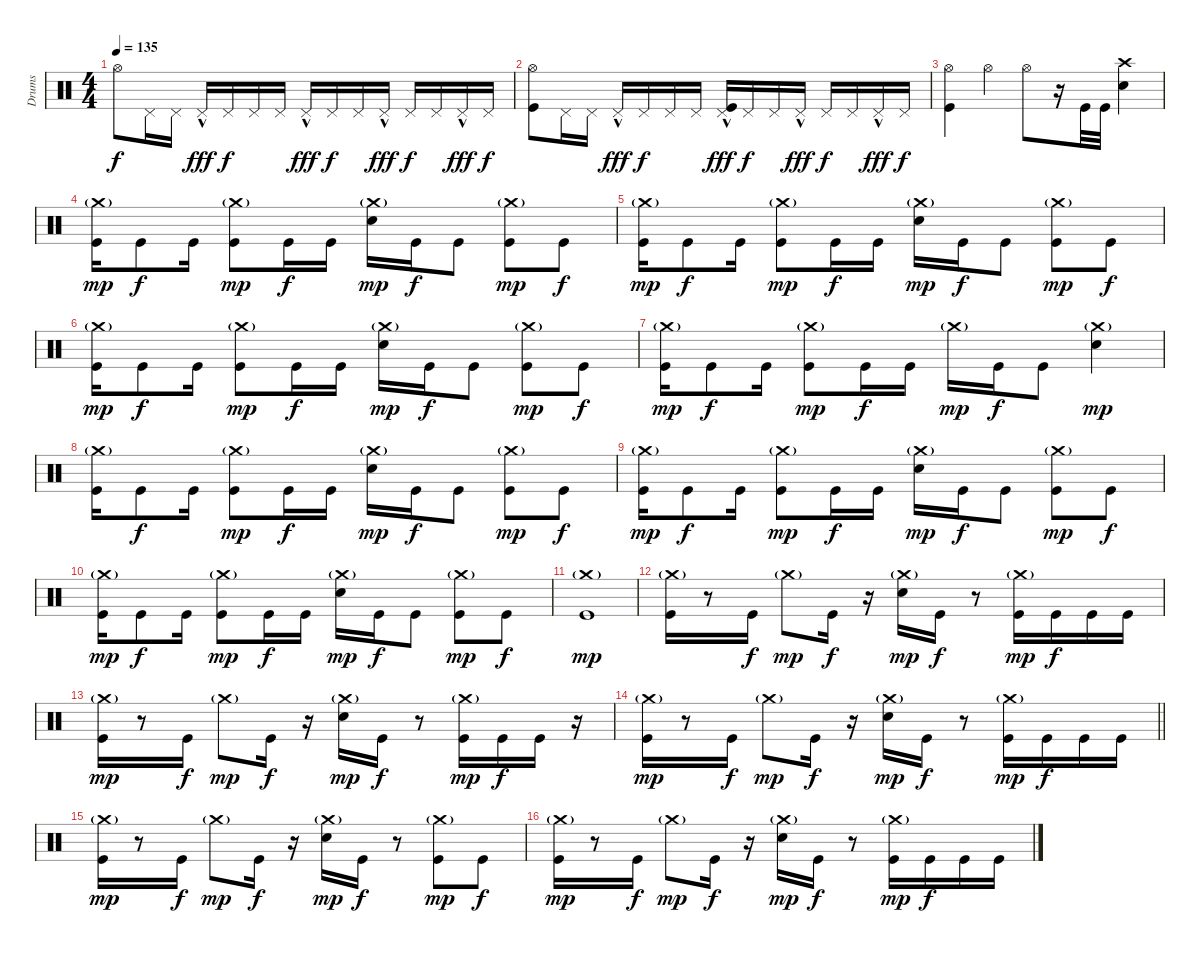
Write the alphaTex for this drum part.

\track ("Drums" "Drums") {instrument percussion}
\staff {score}
\articulation defaults
\ts (4 4)
\tempo 135
\clef neutral
\ks c "Hi-Hat (open)".8{dy f} "Pedal Hi-Hat (hit)".16 "Pedal Hi-Hat (hit)".16 "Pedal Hi-Hat (hit)"{hac}.16{dy fff} "Pedal Hi-Hat (hit)".16{dy f} "Pedal Hi-Hat (hit)".16 "Pedal Hi-Hat (hit)".16 "Pedal Hi-Hat (hit)"{hac}.16{dy fff} "Pedal Hi-Hat (hit)".16{dy f} "Pedal Hi-Hat (hit)".16 "Pedal Hi-Hat (hit)"{hac}.16{dy fff} "Pedal Hi-Hat (hit)".16{dy f} "Pedal Hi-Hat (hit)".16 "Pedal Hi-Hat (hit)"{hac}.16{dy fff} "Pedal Hi-Hat (hit)".16{dy f}
|
("Hi-Hat (open)" "Kick (hit)").8 "Pedal Hi-Hat (hit)".16 "Pedal Hi-Hat (hit)".16 "Pedal Hi-Hat (hit)"{hac}.16{dy fff} "Pedal Hi-Hat (hit)".16{dy f} "Pedal Hi-Hat (hit)".16 "Pedal Hi-Hat (hit)".16 ("Pedal Hi-Hat (hit)"{hac} "Kick (hit)").16{dy fff} "Pedal Hi-Hat (hit)".16{dy f} "Pedal Hi-Hat (hit)".16 "Pedal Hi-Hat (hit)"{hac}.16{dy fff} "Pedal Hi-Hat (hit)".16{dy f} "Pedal Hi-Hat (hit)".16 "Pedal Hi-Hat (hit)"{hac}.16{dy fff} "Pedal Hi-Hat (hit)".16{dy f} |
("Hi-Hat (open)" "Kick (hit)").4 "Hi-Hat (open)".4 "Hi-Hat (open)".8 r.16 "Kick (hit)".32 "Kick (hit)".32 ("Crash high (hit)" "Snare (hit) 2").4 |
("Crash medium (hit)"{g} "Kick (hit)").16{dy mp} "Kick (hit)".8{dy f} "Kick (hit)".16 ("Crash medium (hit)"{g} "Kick (hit)").8{dy mp} "Kick (hit)".16{dy f} "Kick (hit)".16 ("Crash medium (hit)"{g} "Snare (hit) 2").16{dy mp} "Kick (hit)".16{dy f} "Kick (hit)".8 ("Crash medium (hit)"{g} "Kick (hit)").8{dy mp} "Kick (hit)".8{dy f} |
("Crash medium (hit)"{g} "Kick (hit)").16{dy mp} "Kick (hit)".8{dy f} "Kick (hit)".16 ("Crash medium (hit)"{g} "Kick (hit)").8{dy mp} "Kick (hit)".16{dy f} "Kick (hit)".16 ("Crash medium (hit)"{g} "Snare (hit) 2").16{dy mp} "Kick (hit)".16{dy f} "Kick (hit)".8 ("Crash medium (hit)"{g} "Kick (hit)").8{dy mp} "Kick (hit)".8{dy f} |
("Crash medium (hit)"{g} "Kick (hit)").16{dy mp} "Kick (hit)".8{dy f} "Kick (hit)".16 ("Crash medium (hit)"{g} "Kick (hit)").8{dy mp} "Kick (hit)".16{dy f} "Kick (hit)".16 ("Crash medium (hit)"{g} "Snare (hit) 2").16{dy mp} "Kick (hit)".16{dy f} "Kick (hit)".8 ("Crash medium (hit)"{g} "Kick (hit)").8{dy mp} "Kick (hit)".8{dy f} |
("Crash medium (hit)"{g} "Kick (hit)").16{dy mp} "Kick (hit)".8{dy f} "Kick (hit)".16 ("Crash medium (hit)"{g} "Kick (hit)").8{dy mp} "Kick (hit)".16{dy f} "Kick (hit)".16 "Crash medium (hit)"{g}.16{dy mp} "Kick (hit)".16{dy f} "Kick (hit)".8 ("Crash medium (hit)"{g} "Snare (hit) 2").4{dy mp} |
("Crash medium (hit)"{g} "Kick (hit)").16 "Kick (hit)".8{dy f} "Kick (hit)".16 ("Crash medium (hit)"{g} "Kick (hit)").8{dy mp} "Kick (hit)".16{dy f} "Kick (hit)".16 ("Crash medium (hit)"{g} "Snare (hit) 2").16{dy mp} "Kick (hit)".16{dy f} "Kick (hit)".8 ("Crash medium (hit)"{g} "Kick (hit)").8{dy mp} "Kick (hit)".8{dy f} |
("Crash medium (hit)"{g} "Kick (hit)").16{dy mp} "Kick (hit)".8{dy f} "Kick (hit)".16 ("Crash medium (hit)"{g} "Kick (hit)").8{dy mp} "Kick (hit)".16{dy f} "Kick (hit)".16 ("Crash medium (hit)"{g} "Snare (hit) 2").16{dy mp} "Kick (hit)".16{dy f} "Kick (hit)".8 ("Crash medium (hit)"{g} "Kick (hit)").8{dy mp} "Kick (hit)".8{dy f} |
("Crash medium (hit)"{g} "Kick (hit)").16{dy mp} "Kick (hit)".8{dy f} "Kick (hit)".16 ("Crash medium (hit)"{g} "Kick (hit)").8{dy mp} "Kick (hit)".16{dy f} "Kick (hit)".16 ("Crash medium (hit)"{g} "Snare (hit) 2").16{dy mp} "Kick (hit)".16{dy f} "Kick (hit)".8 ("Crash medium (hit)"{g} "Kick (hit)").8{dy mp} "Kick (hit)".8{dy f} |
("Crash medium (hit)"{g} "Kick (hit)").1{dy mp} |
("Crash medium (hit)"{g} "Kick (hit)").16 r.8 "Kick (hit)".16{dy f} "Crash medium (hit)"{g}.8{dy mp} "Kick (hit)".16{dy f} r.16 ("Crash medium (hit)"{g} "Snare (hit) 2").16{dy mp} "Kick (hit)".16{dy f} r.8 ("Crash medium (hit)"{g} "Kick (hit)").16{dy mp} "Kick (hit)".16{dy f} "Kick (hit)".16 "Kick (hit)".16 |
("Crash medium (hit)"{g} "Kick (hit)").16{dy mp} r.8 "Kick (hit)".16{dy f} "Crash medium (hit)"{g}.8{dy mp} "Kick (hit)".16{dy f} r.16 ("Crash medium (hit)"{g} "Snare (hit) 2").16{dy mp} "Kick (hit)".16{dy f} r.8 ("Crash medium (hit)"{g} "Kick (hit)").16{dy mp} "Kick (hit)".16{dy f} "Kick (hit)".16 r.16 |
\barLineRight lightlight
("Crash medium (hit)"{g} "Kick (hit)").16{dy mp} r.8 "Kick (hit)".16{dy f} "Crash medium (hit)"{g}.8{dy mp} "Kick (hit)".16{dy f} r.16 ("Crash medium (hit)"{g} "Snare (hit) 2").16{dy mp} "Kick (hit)".16{dy f} r.8 ("Crash medium (hit)"{g} "Kick (hit)").16{dy mp} "Kick (hit)".16{dy f} "Kick (hit)".16 "Kick (hit)".16 |
("Crash medium (hit)"{g} "Kick (hit)").16{dy mp} r.8 "Kick (hit)".16{dy f} "Crash medium (hit)"{g}.8{dy mp} "Kick (hit)".16{dy f} r.16 ("Crash medium (hit)"{g} "Snare (hit) 2").16{dy mp} "Kick (hit)".16{dy f} r.8 ("Crash medium (hit)"{g} "Kick (hit)").8{dy mp} "Kick (hit)".8{dy f} |
("Crash medium (hit)"{g} "Kick (hit)").16{dy mp} r.8 "Kick (hit)".16{dy f} "Crash medium (hit)"{g}.8{dy mp} "Kick (hit)".16{dy f} r.16 ("Crash medium (hit)"{g} "Snare (hit) 2").16{dy mp} "Kick (hit)".16{dy f} r.8 ("Crash medium (hit)"{g} "Kick (hit)").16{dy mp} "Kick (hit)".16{dy f} "Kick (hit)".16 "Kick (hit)".16
